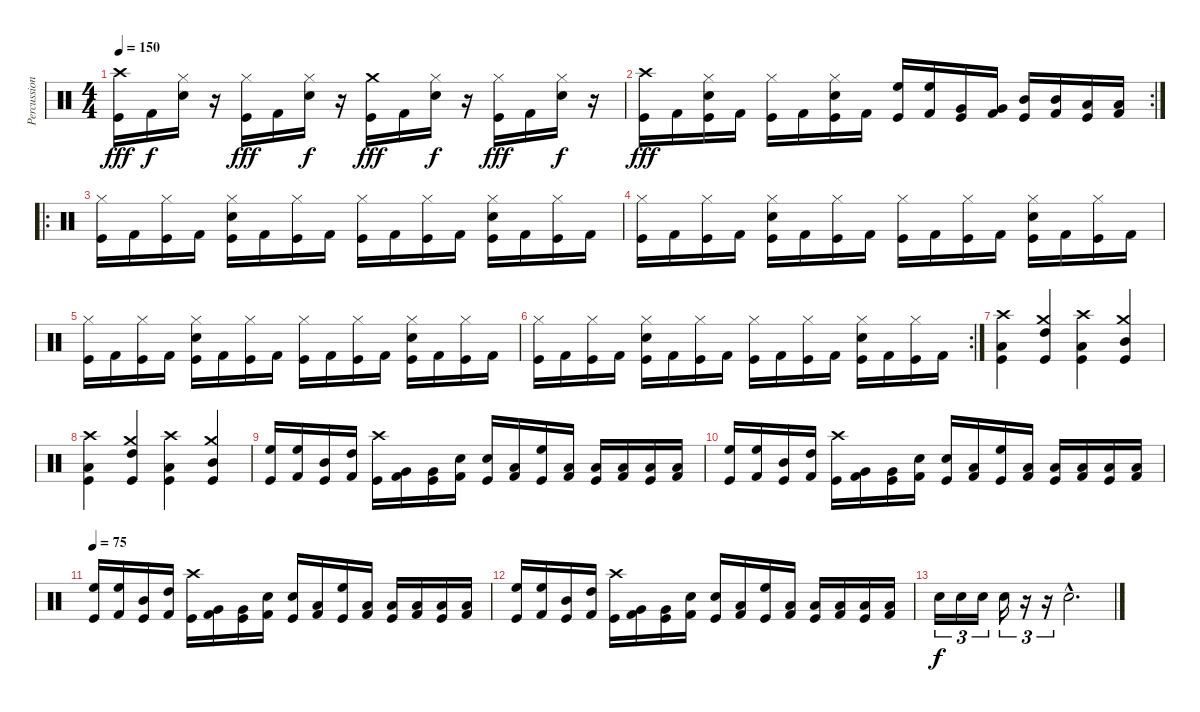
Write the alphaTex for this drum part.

\track ("Percussion" "Percussion") {instrument percussion}
\staff {score}
\articulation defaults
\ts (4 4)
\tempo 150
\clef neutral
\ks c
("Crash high (hit)" "Kick (hit)").16{dy fff} "Kick (hit) 2".16{dy f} ("Hi-Hat (closed)" "Electric Snare (hit)").16 r.16 ("Hi-Hat (closed)" "Kick (hit)").16{dy fff} "Kick (hit) 2".16 ("Hi-Hat (closed)" "Electric Snare (hit)").16{dy f} r.16 ("Crash medium (hit)" "Kick (hit)").16{dy fff} "Kick (hit) 2".16 ("Hi-Hat (closed)" "Electric Snare (hit)").16{dy f} r.16 ("Hi-Hat (closed)" "Kick (hit)").16{dy fff} "Kick (hit) 2".16 ("Hi-Hat (closed)" "Electric Snare (hit)").16{dy f} r.16 |
\rc 2
("Crash high (hit)" "Kick (hit)").16{dy fff} "Kick (hit) 2".16 ("Hi-Hat (closed)" "Electric Snare (hit)" "Kick (hit)").16 "Kick (hit) 2".16 ("Hi-Hat (closed)" "Kick (hit)").16 "Kick (hit) 2".16 ("Hi-Hat (closed)" "Electric Snare (hit)" "Kick (hit)").16 "Kick (hit) 2".16 ("High Floor Tom (hit)" "Kick (hit)").16 ("High Floor Tom (hit)" "Kick (hit) 2").16 ("Very Low Tom (hit)" "Kick (hit)").16 ("Very Low Tom (hit)" "Kick (hit) 2").16 ("Mid Tom (hit)" "Kick (hit)").16 ("Mid Tom (hit)" "Kick (hit) 2").16 ("Low Floor Tom (hit)" "Kick (hit)").16 ("Low Floor Tom (hit)" "Kick (hit) 2").16 |
\ro
("Hi-Hat (closed)" "Kick (hit)").16 "Kick (hit) 2".16 ("Hi-Hat (closed)" "Kick (hit)").16 "Kick (hit) 2".16 ("Hi-Hat (closed)" "Electric Snare (hit)" "Kick (hit)").16 "Kick (hit) 2".16 ("Hi-Hat (closed)" "Kick (hit)").16 "Kick (hit) 2".16 ("Hi-Hat (closed)" "Kick (hit)").16 "Kick (hit) 2".16 ("Hi-Hat (closed)" "Kick (hit)").16 "Kick (hit) 2".16 ("Hi-Hat (closed)" "Electric Snare (hit)" "Kick (hit)").16 "Kick (hit) 2".16 ("Hi-Hat (closed)" "Kick (hit)").16 "Kick (hit) 2".16 |
("Hi-Hat (closed)" "Kick (hit)").16 "Kick (hit) 2".16 ("Hi-Hat (closed)" "Kick (hit)").16 "Kick (hit) 2".16 ("Hi-Hat (closed)" "Electric Snare (hit)" "Kick (hit)").16 "Kick (hit) 2".16 ("Hi-Hat (closed)" "Kick (hit)").16 "Kick (hit) 2".16 ("Hi-Hat (closed)" "Kick (hit)").16 "Kick (hit) 2".16 ("Hi-Hat (closed)" "Kick (hit)").16 "Kick (hit) 2".16 ("Hi-Hat (closed)" "Electric Snare (hit)" "Kick (hit)").16 "Kick (hit) 2".16 ("Hi-Hat (closed)" "Kick (hit)").16 "Kick (hit) 2".16 |
("Hi-Hat (closed)" "Kick (hit)").16 "Kick (hit) 2".16 ("Hi-Hat (closed)" "Kick (hit)").16 "Kick (hit) 2".16 ("Hi-Hat (closed)" "Electric Snare (hit)" "Kick (hit)").16 "Kick (hit) 2".16 ("Hi-Hat (closed)" "Kick (hit)").16 "Kick (hit) 2".16 ("Hi-Hat (closed)" "Kick (hit)").16 "Kick (hit) 2".16 ("Hi-Hat (closed)" "Kick (hit)").16 "Kick (hit) 2".16 ("Hi-Hat (closed)" "Electric Snare (hit)" "Kick (hit)").16 "Kick (hit) 2".16 ("Hi-Hat (closed)" "Kick (hit)").16 "Kick (hit) 2".16 |
\rc 2
("Hi-Hat (closed)" "Kick (hit)").16 "Kick (hit) 2".16 ("Hi-Hat (closed)" "Kick (hit)").16 "Kick (hit) 2".16 ("Hi-Hat (closed)" "Electric Snare (hit)" "Kick (hit)").16 "Kick (hit) 2".16 ("Hi-Hat (closed)" "Kick (hit)").16 "Kick (hit) 2".16 ("Hi-Hat (closed)" "Kick (hit)").16 "Kick (hit) 2".16 ("Hi-Hat (closed)" "Kick (hit)").16 "Kick (hit) 2".16 ("Hi-Hat (closed)" "Electric Snare (hit)" "Kick (hit)").16 "Kick (hit) 2".16 ("Hi-Hat (closed)" "Kick (hit)").16 "Kick (hit) 2".16 |
("Crash high (hit)" "Low Tom (hit)" "Kick (hit)").4 ("Crash medium (hit)" "High Tom (hit)" "Kick (hit)").4 ("Crash high (hit)" "Low Floor Tom (hit)" "Kick (hit)").4 ("Crash medium (hit)" "Mid Tom (hit)" "Kick (hit)").4 |
("Crash high (hit)" "Low Tom (hit)" "Kick (hit)").4 ("Crash medium (hit)" "High Tom (hit)" "Kick (hit)").4 ("Crash high (hit)" "Low Floor Tom (hit)" "Kick (hit)").4 ("Crash medium (hit)" "Mid Tom (hit)" "Kick (hit)").4 |
("High Floor Tom (hit)" "Kick (hit)").16 ("High Floor Tom (hit)" "Kick (hit) 2").16 ("Mid Tom (hit)" "Kick (hit)").16 ("High Tom (hit)" "Kick (hit) 2").16 ("Crash high (hit)" "Kick (hit)").16 ("Very Low Tom (hit)" "Kick (hit) 2").16 ("Very Low Tom (hit)" "Kick (hit)").16 ("Electric Snare (hit)" "Kick (hit) 2").16 ("Electric Snare (hit)" "Kick (hit)").16 ("Low Floor Tom (hit)" "Kick (hit) 2").16 ("High Floor Tom (hit)" "Kick (hit)").16 ("Low Tom (hit)" "Kick (hit) 2").16 ("Low Tom (hit)" "Kick (hit)").16 ("Low Floor Tom (hit)" "Kick (hit) 2").16 ("Low Floor Tom (hit)" "Kick (hit)").16 ("Low Floor Tom (hit)" "Kick (hit) 2").16 |
("High Floor Tom (hit)" "Kick (hit)").16 ("High Floor Tom (hit)" "Kick (hit) 2").16 ("Mid Tom (hit)" "Kick (hit)").16 ("High Tom (hit)" "Kick (hit) 2").16 ("Crash high (hit)" "Kick (hit)").16 ("Very Low Tom (hit)" "Kick (hit) 2").16 ("Very Low Tom (hit)" "Kick (hit)").16 ("Electric Snare (hit)" "Kick (hit) 2").16 ("Electric Snare (hit)" "Kick (hit)").16 ("Low Floor Tom (hit)" "Kick (hit) 2").16 ("High Floor Tom (hit)" "Kick (hit)").16 ("Low Tom (hit)" "Kick (hit) 2").16 ("Low Tom (hit)" "Kick (hit)").16 ("Low Floor Tom (hit)" "Kick (hit) 2").16 ("Low Floor Tom (hit)" "Kick (hit)").16 ("Low Floor Tom (hit)" "Kick (hit) 2").16 |
\tempo 75
("High Floor Tom (hit)" "Kick (hit)").16 ("High Floor Tom (hit)" "Kick (hit) 2").16 ("Mid Tom (hit)" "Kick (hit)").16 ("High Tom (hit)" "Kick (hit) 2").16 ("Crash high (hit)" "Kick (hit)").16 ("Very Low Tom (hit)" "Kick (hit) 2").16 ("Very Low Tom (hit)" "Kick (hit)").16 ("Electric Snare (hit)" "Kick (hit) 2").16 ("Electric Snare (hit)" "Kick (hit)").16 ("Low Floor Tom (hit)" "Kick (hit) 2").16 ("High Floor Tom (hit)" "Kick (hit)").16 ("Low Tom (hit)" "Kick (hit) 2").16 ("Low Tom (hit)" "Kick (hit)").16 ("Low Floor Tom (hit)" "Kick (hit) 2").16 ("Low Floor Tom (hit)" "Kick (hit)").16 ("Low Floor Tom (hit)" "Kick (hit) 2").16 |
("High Floor Tom (hit)" "Kick (hit)").16 ("High Floor Tom (hit)" "Kick (hit) 2").16 ("Mid Tom (hit)" "Kick (hit)").16 ("High Tom (hit)" "Kick (hit) 2").16 ("Crash high (hit)" "Kick (hit)").16 ("Very Low Tom (hit)" "Kick (hit) 2").16 ("Very Low Tom (hit)" "Kick (hit)").16 ("Electric Snare (hit)" "Kick (hit) 2").16 ("Electric Snare (hit)" "Kick (hit)").16 ("Low Floor Tom (hit)" "Kick (hit) 2").16 ("High Floor Tom (hit)" "Kick (hit)").16 ("Low Tom (hit)" "Kick (hit) 2").16 ("Low Tom (hit)" "Kick (hit)").16 ("Low Floor Tom (hit)" "Kick (hit) 2").16 ("Low Floor Tom (hit)" "Kick (hit)").16 ("Low Floor Tom (hit)" "Kick (hit) 2").16 |
"Electric Snare (hit)".16{tu (3 2) dy f} "Electric Snare (hit)".16{tu (3 2)} "Electric Snare (hit)".16{tu (3 2)} "Electric Snare (hit)".16{tu (3 2)} r.16{tu (3 2)} r.16{tu (3 2)} "Electric Snare (hit)"{hac}.2{d}
